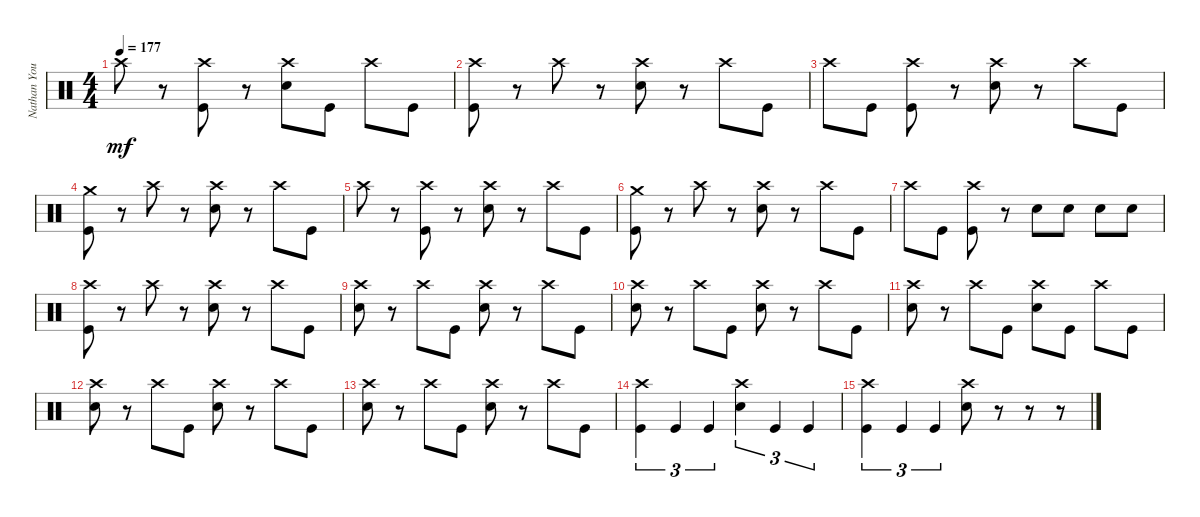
\track ("Nathan Young" "Nathan You") {instrument percussion}
\staff {score}
\articulation defaults
\ts (4 4)
\tempo 177
\clef neutral
\ks c "Crash high (hit)".8{dy mf}
r.8 ("Crash high (hit)" "Kick (hit)").8 r.8 ("Crash high (hit)" "Snare (hit) 2").8 "Kick (hit)".8 "Crash high (hit)".8 "Kick (hit)".8 |
("Crash high (hit)" "Kick (hit)").8 r.8 "Crash high (hit)".8 r.8 ("Crash high (hit)" "Snare (hit) 2").8 r.8 "Crash high (hit)".8 "Kick (hit)".8 |
"Crash high (hit)".8 "Kick (hit)".8 ("Crash high (hit)" "Kick (hit)").8 r.8 ("Crash high (hit)" "Snare (hit) 2").8 r.8 "Crash high (hit)".8 "Kick (hit)".8 |
("Crash medium (hit)" "Kick (hit)").8 r.8 "Crash high (hit)".8 r.8 ("Crash high (hit)" "Snare (hit) 2").8 r.8 "Crash high (hit)".8 "Kick (hit)".8 |
"Crash high (hit)".8 r.8 ("Crash high (hit)" "Kick (hit)").8 r.8 ("Crash high (hit)" "Snare (hit) 2").8 r.8 "Crash high (hit)".8 "Kick (hit)".8 |
("Crash medium (hit)" "Kick (hit)").8 r.8 "Crash high (hit)".8 r.8 ("Crash high (hit)" "Snare (hit) 2").8 r.8 "Crash high (hit)".8 "Kick (hit)".8 |
"Crash high (hit)".8 "Kick (hit)".8 ("Crash high (hit)" "Kick (hit)").8 r.8 "Snare (hit) 2".8 "Snare (hit) 2".8 "Snare (hit) 2".8 "Snare (hit) 2".8 |
("Crash high (hit)" "Kick (hit)").8 r.8 "Crash high (hit)".8 r.8 ("Crash high (hit)" "Snare (hit) 2").8 r.8 "Crash high (hit)".8 "Kick (hit)".8 |
("Crash high (hit)" "Snare (hit) 2").8 r.8 "Crash high (hit)".8 "Kick (hit)".8 ("Crash high (hit)" "Snare (hit) 2").8 r.8 "Crash high (hit)".8 "Kick (hit)".8 |
("Crash high (hit)" "Snare (hit) 2").8 r.8 "Crash high (hit)".8 "Kick (hit)".8 ("Crash high (hit)" "Snare (hit) 2").8 r.8 "Crash high (hit)".8 "Kick (hit)".8 |
("Crash high (hit)" "Snare (hit) 2").8 r.8 "Crash high (hit)".8 "Kick (hit)".8 ("Crash high (hit)" "Snare (hit) 2").8 "Kick (hit)".8 "Crash high (hit)".8 "Kick (hit)".8 |
("Crash high (hit)" "Snare (hit) 2").8 r.8 "Crash high (hit)".8 "Kick (hit)".8 ("Crash high (hit)" "Snare (hit) 2").8 r.8 "Crash high (hit)".8 "Kick (hit)".8 |
("Crash high (hit)" "Snare (hit) 2").8 r.8 "Crash high (hit)".8 "Kick (hit)".8 ("Crash high (hit)" "Snare (hit) 2").8 r.8 "Crash high (hit)".8 "Kick (hit)".8 |
("Crash high (hit)" "Kick (hit)").4{tu (3 2)} "Kick (hit)".4{tu (3 2)} "Kick (hit)".4{tu (3 2)} ("Crash high (hit)" "Snare (hit) 2").4{tu (3 2)} "Kick (hit)".4{tu (3 2)} "Kick (hit)".4{tu (3 2)} |
("Crash high (hit)" "Kick (hit)").4{tu (3 2)} "Kick (hit)".4{tu (3 2)} "Kick (hit)".4{tu (3 2)} ("Crash high (hit)" "Snare (hit) 2").8 r.8 r.8 r.8
